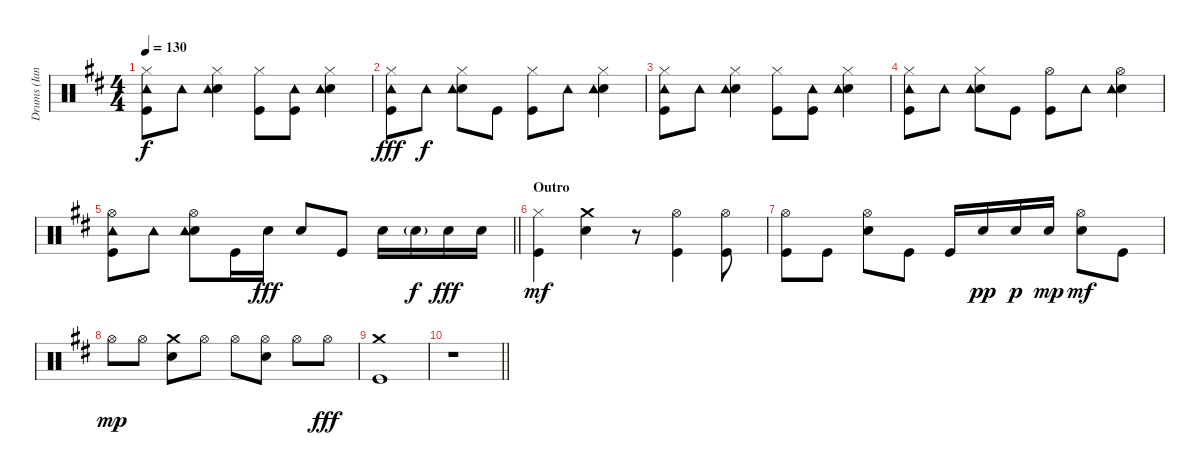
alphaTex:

\track ("Drums (Ian Paice)" "Drums (Ian") {instrument percussion}
\staff {score}
\articulation defaults
\ts (4 4)
\tempo 130
\clef neutral
\ks bminor
("Hi-Hat (closed)" "Tambourine (hit)" "Kick (hit)").8{dy f} "Tambourine (hit)".8 ("Hi-Hat (closed)" "Electric Snare (hit)" "Tambourine (hit)").4 ("Hi-Hat (closed)" "Kick (hit)").8 ("Tambourine (hit)" "Kick (hit)").8 ("Hi-Hat (closed)" "Electric Snare (hit)" "Tambourine (hit)").4 |
("Hi-Hat (closed)" "Tambourine (hit)" "Kick (hit)").8{dy fff} "Tambourine (hit)".8{dy f} ("Hi-Hat (closed)" "Electric Snare (hit)" "Tambourine (hit)").8 "Kick (hit)".8 ("Hi-Hat (closed)" "Kick (hit)").8 "Tambourine (hit)".8 ("Hi-Hat (closed)" "Electric Snare (hit)" "Tambourine (hit)").4 |
("Hi-Hat (closed)" "Tambourine (hit)" "Kick (hit)").8 "Tambourine (hit)".8 ("Hi-Hat (closed)" "Electric Snare (hit)" "Tambourine (hit)").4 ("Hi-Hat (closed)" "Kick (hit)").8 ("Tambourine (hit)" "Kick (hit)").8 ("Hi-Hat (closed)" "Electric Snare (hit)" "Tambourine (hit)").4 |
("Hi-Hat (closed)" "Tambourine (hit)" "Kick (hit)").8 "Tambourine (hit)".8 ("Hi-Hat (closed)" "Electric Snare (hit)" "Tambourine (hit)").8 "Kick (hit)".8 ("Hi-Hat (open)" "Kick (hit)").8 "Tambourine (hit)".8 ("Hi-Hat (open)" "Electric Snare (hit)" "Tambourine (hit)").4 |
\barLineRight lightlight
("Hi-Hat (open)" "Tambourine (hit)" "Kick (hit)").8 "Tambourine (hit)".8 ("Hi-Hat (open)" "Electric Snare (hit)" "Tambourine (hit)").8 "Kick (hit)".16 "Electric Snare (hit)".16{dy fff} "Electric Snare (hit)".8 "Kick (hit)".8 "Electric Snare (hit)".16 "Electric Snare (hit)"{g}.16{dy f} "Electric Snare (hit)".16{dy fff} "Electric Snare (hit)".16 |
\section ("" "Outro")
("Hi-Hat (closed)" "Kick (hit)").4{dy mf} ("Crash medium (hit)" "Electric Snare (hit)").4 r.8 ("Hi-Hat (open)" "Kick (hit)").4 ("Hi-Hat (open)" "Kick (hit)").8 |
("Hi-Hat (open)" "Kick (hit)").8 "Kick (hit)".8 ("Hi-Hat (open)" "Electric Snare (hit)").8 "Kick (hit)".8 "Kick (hit)".16 "Electric Snare (hit)".16{dy pp} "Electric Snare (hit)".16{dy p} "Electric Snare (hit)".16{dy mp} ("Hi-Hat (open)" "Electric Snare (hit)").8{dy mf} "Kick (hit)".8 |
"Hi-Hat (open)".8{dy mp} "Hi-Hat (open)".8 ("Crash medium (hit)" "Electric Snare (hit)").8 "Hi-Hat (open)".8 "Hi-Hat (open)".8 ("Hi-Hat (open)" "Electric Snare (hit)").8 "Hi-Hat (open)".8 "Hi-Hat (open)".8{dy fff} |
("Crash medium (hit)" "Kick (hit)").1 |
\barLineRight lightlight
r.1
